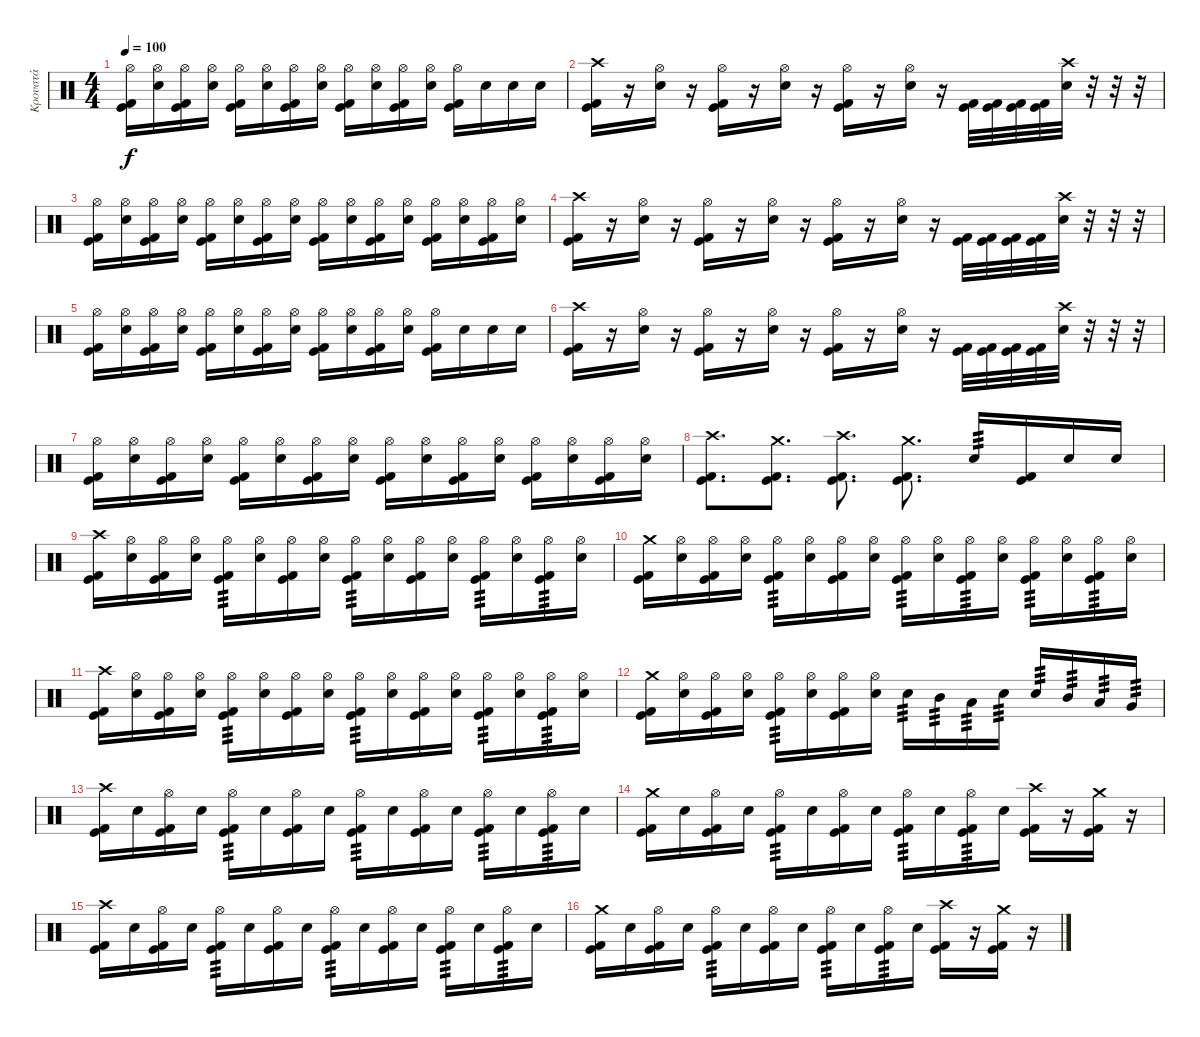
\track ("Κρουστά" "Κρουστά") {instrument percussion}
\staff {score}
\articulation defaults
\ts (4 4)
\tempo 100
\clef neutral
\ks c
("Hi-Hat (open)" "Kick (hit)" "Kick (hit) 2").16{dy f} ("Hi-Hat (open)" "Snare (hit) 2").16 ("Hi-Hat (open)" "Kick (hit)" "Kick (hit) 2").16 ("Hi-Hat (open)" "Snare (hit) 2").16 ("Hi-Hat (open)" "Kick (hit)" "Kick (hit) 2").16 ("Hi-Hat (open)" "Snare (hit) 2").16 ("Hi-Hat (open)" "Kick (hit)" "Kick (hit) 2").16 ("Hi-Hat (open)" "Snare (hit) 2").16 ("Hi-Hat (open)" "Kick (hit)" "Kick (hit) 2").16 ("Hi-Hat (open)" "Snare (hit) 2").16 ("Hi-Hat (open)" "Kick (hit)" "Kick (hit) 2").16 ("Hi-Hat (open)" "Snare (hit) 2").16 ("Hi-Hat (open)" "Kick (hit)" "Kick (hit) 2").16 "Snare (hit) 2".16 "Snare (hit) 2".16 "Snare (hit) 2".16 |
("Crash high (hit)" "Kick (hit)" "Kick (hit) 2").16 r.16 ("Hi-Hat (open)" "Snare (hit) 2").16 r.16 ("Hi-Hat (open)" "Kick (hit)" "Kick (hit) 2").16 r.16 ("Hi-Hat (open)" "Snare (hit) 2").16 r.16 ("Hi-Hat (open)" "Kick (hit)" "Kick (hit) 2").16 r.16 ("Hi-Hat (open)" "Snare (hit) 2").16 r.16 ("Kick (hit)" "Kick (hit) 2").32 ("Kick (hit)" "Kick (hit) 2").32 ("Kick (hit)" "Kick (hit) 2").32 ("Kick (hit)" "Kick (hit) 2").32 ("Crash high (hit)" "Snare (hit) 2").32 r.32 r.32 r.32 |
("Hi-Hat (open)" "Kick (hit)" "Kick (hit) 2").16 ("Hi-Hat (open)" "Snare (hit) 2").16 ("Hi-Hat (open)" "Kick (hit)" "Kick (hit) 2").16 ("Hi-Hat (open)" "Snare (hit) 2").16 ("Hi-Hat (open)" "Kick (hit)" "Kick (hit) 2").16 ("Hi-Hat (open)" "Snare (hit) 2").16 ("Hi-Hat (open)" "Kick (hit)" "Kick (hit) 2").16 ("Hi-Hat (open)" "Snare (hit) 2").16 ("Hi-Hat (open)" "Kick (hit)" "Kick (hit) 2").16 ("Hi-Hat (open)" "Snare (hit) 2").16 ("Hi-Hat (open)" "Kick (hit)" "Kick (hit) 2").16 ("Hi-Hat (open)" "Snare (hit) 2").16 ("Hi-Hat (open)" "Kick (hit)" "Kick (hit) 2").16 ("Hi-Hat (open)" "Snare (hit) 2").16 ("Hi-Hat (open)" "Kick (hit)" "Kick (hit) 2").16 ("Hi-Hat (open)" "Snare (hit) 2").16 |
("Crash high (hit)" "Kick (hit)" "Kick (hit) 2").16 r.16 ("Hi-Hat (open)" "Snare (hit) 2").16 r.16 ("Hi-Hat (open)" "Kick (hit)" "Kick (hit) 2").16 r.16 ("Hi-Hat (open)" "Snare (hit) 2").16 r.16 ("Hi-Hat (open)" "Kick (hit)" "Kick (hit) 2").16 r.16 ("Hi-Hat (open)" "Snare (hit) 2").16 r.16 ("Kick (hit)" "Kick (hit) 2").32 ("Kick (hit)" "Kick (hit) 2").32 ("Kick (hit)" "Kick (hit) 2").32 ("Kick (hit)" "Kick (hit) 2").32 ("Crash high (hit)" "Snare (hit) 2").32 r.32 r.32 r.32 |
("Hi-Hat (open)" "Kick (hit)" "Kick (hit) 2").16 ("Hi-Hat (open)" "Snare (hit) 2").16 ("Hi-Hat (open)" "Kick (hit)" "Kick (hit) 2").16 ("Hi-Hat (open)" "Snare (hit) 2").16 ("Hi-Hat (open)" "Kick (hit)" "Kick (hit) 2").16 ("Hi-Hat (open)" "Snare (hit) 2").16 ("Hi-Hat (open)" "Kick (hit)" "Kick (hit) 2").16 ("Hi-Hat (open)" "Snare (hit) 2").16 ("Hi-Hat (open)" "Kick (hit)" "Kick (hit) 2").16 ("Hi-Hat (open)" "Snare (hit) 2").16 ("Hi-Hat (open)" "Kick (hit)" "Kick (hit) 2").16 ("Hi-Hat (open)" "Snare (hit) 2").16 ("Hi-Hat (open)" "Kick (hit)" "Kick (hit) 2").16 "Snare (hit) 2".16 "Snare (hit) 2".16 "Snare (hit) 2".16 |
("Crash high (hit)" "Kick (hit)" "Kick (hit) 2").16 r.16 ("Hi-Hat (open)" "Snare (hit) 2").16 r.16 ("Hi-Hat (open)" "Kick (hit)" "Kick (hit) 2").16 r.16 ("Hi-Hat (open)" "Snare (hit) 2").16 r.16 ("Hi-Hat (open)" "Kick (hit)" "Kick (hit) 2").16 r.16 ("Hi-Hat (open)" "Snare (hit) 2").16 r.16 ("Kick (hit)" "Kick (hit) 2").32 ("Kick (hit)" "Kick (hit) 2").32 ("Kick (hit)" "Kick (hit) 2").32 ("Kick (hit)" "Kick (hit) 2").32 ("Crash high (hit)" "Snare (hit) 2").32 r.32 r.32 r.32 |
("Hi-Hat (open)" "Kick (hit)" "Kick (hit) 2").16 ("Hi-Hat (open)" "Snare (hit) 2").16 ("Hi-Hat (open)" "Kick (hit)" "Kick (hit) 2").16 ("Hi-Hat (open)" "Snare (hit) 2").16 ("Hi-Hat (open)" "Kick (hit)" "Kick (hit) 2").16 ("Hi-Hat (open)" "Snare (hit) 2").16 ("Hi-Hat (open)" "Kick (hit)" "Kick (hit) 2").16 ("Hi-Hat (open)" "Snare (hit) 2").16 ("Hi-Hat (open)" "Kick (hit)" "Kick (hit) 2").16 ("Hi-Hat (open)" "Snare (hit) 2").16 ("Hi-Hat (open)" "Kick (hit)" "Kick (hit) 2").16 ("Hi-Hat (open)" "Snare (hit) 2").16 ("Hi-Hat (open)" "Kick (hit)" "Kick (hit) 2").16 ("Hi-Hat (open)" "Snare (hit) 2").16 ("Hi-Hat (open)" "Kick (hit)" "Kick (hit) 2").16 ("Hi-Hat (open)" "Snare (hit) 2").16 |
("Crash high (hit)" "Kick (hit)" "Kick (hit) 2").8{d} ("Crash medium (hit)" "Kick (hit)" "Kick (hit) 2").8{d} ("Crash high (hit)" "Kick (hit)" "Kick (hit) 2").8{d} ("Crash medium (hit)" "Kick (hit)" "Kick (hit) 2").8{d} "Snare (hit) 2".16{tp 3} ("Kick (hit)" "Kick (hit) 2").16 "Snare (hit) 2".16 "Snare (hit) 2".16 |
("Crash high (hit)" "Kick (hit)" "Kick (hit) 2").16 ("Hi-Hat (open)" "Snare (hit) 2").16 ("Hi-Hat (open)" "Kick (hit)" "Kick (hit) 2").16 ("Hi-Hat (open)" "Snare (hit) 2").16 ("Hi-Hat (open)" "Kick (hit)" "Kick (hit) 2").16{tp 3} ("Hi-Hat (open)" "Snare (hit) 2").16 ("Hi-Hat (open)" "Kick (hit)" "Kick (hit) 2").16 ("Hi-Hat (open)" "Snare (hit) 2").16 ("Hi-Hat (open)" "Kick (hit)" "Kick (hit) 2").16{tp 3} ("Hi-Hat (open)" "Snare (hit) 2").16 ("Hi-Hat (open)" "Kick (hit)" "Kick (hit) 2").16 ("Hi-Hat (open)" "Snare (hit) 2").16 ("Hi-Hat (open)" "Kick (hit)" "Kick (hit) 2").16{tp 3} ("Hi-Hat (open)" "Snare (hit) 2").16 ("Hi-Hat (open)" "Kick (hit)" "Kick (hit) 2").16{tp 3} ("Hi-Hat (open)" "Snare (hit) 2").16 |
("Crash medium (hit)" "Kick (hit)" "Kick (hit) 2").16 ("Hi-Hat (open)" "Snare (hit) 2").16 ("Hi-Hat (open)" "Kick (hit)" "Kick (hit) 2").16 ("Hi-Hat (open)" "Snare (hit) 2").16 ("Hi-Hat (open)" "Kick (hit)" "Kick (hit) 2").16{tp 3} ("Hi-Hat (open)" "Snare (hit) 2").16 ("Hi-Hat (open)" "Kick (hit)" "Kick (hit) 2").16 ("Hi-Hat (open)" "Snare (hit) 2").16 ("Hi-Hat (open)" "Kick (hit)" "Kick (hit) 2").16{tp 3} ("Hi-Hat (open)" "Snare (hit) 2").16 ("Hi-Hat (open)" "Kick (hit)" "Kick (hit) 2").16{tp 3} ("Hi-Hat (open)" "Snare (hit) 2").16 ("Hi-Hat (open)" "Kick (hit)" "Kick (hit) 2").16{tp 3} ("Hi-Hat (open)" "Snare (hit) 2").16 ("Hi-Hat (open)" "Kick (hit)" "Kick (hit) 2").16{tp 3} ("Hi-Hat (open)" "Snare (hit) 2").16 |
("Crash high (hit)" "Kick (hit)" "Kick (hit) 2").16 ("Hi-Hat (open)" "Snare (hit) 2").16 ("Hi-Hat (open)" "Kick (hit)" "Kick (hit) 2").16 ("Hi-Hat (open)" "Snare (hit) 2").16 ("Hi-Hat (open)" "Kick (hit)" "Kick (hit) 2").16{tp 3} ("Hi-Hat (open)" "Snare (hit) 2").16 ("Hi-Hat (open)" "Kick (hit)" "Kick (hit) 2").16 ("Hi-Hat (open)" "Snare (hit) 2").16 ("Hi-Hat (open)" "Kick (hit)" "Kick (hit) 2").16{tp 3} ("Hi-Hat (open)" "Snare (hit) 2").16 ("Hi-Hat (open)" "Kick (hit)" "Kick (hit) 2").16 ("Hi-Hat (open)" "Snare (hit) 2").16 ("Hi-Hat (open)" "Kick (hit)" "Kick (hit) 2").16{tp 3} ("Hi-Hat (open)" "Snare (hit) 2").16 ("Hi-Hat (open)" "Kick (hit)" "Kick (hit) 2").16{tp 3} ("Hi-Hat (open)" "Snare (hit) 2").16 |
("Crash medium (hit)" "Kick (hit)" "Kick (hit) 2").16 ("Hi-Hat (open)" "Snare (hit) 2").16 ("Hi-Hat (open)" "Kick (hit)" "Kick (hit) 2").16 ("Hi-Hat (open)" "Snare (hit) 2").16 ("Hi-Hat (open)" "Kick (hit)" "Kick (hit) 2").16{tp 3} ("Hi-Hat (open)" "Snare (hit) 2").16 ("Hi-Hat (open)" "Kick (hit)" "Kick (hit) 2").16 ("Hi-Hat (open)" "Snare (hit) 2").16 "Snare (hit) 2".16{tp 3} "Mid Tom (hit)".16{tp 3} "Low Tom (hit)".16{tp 3} "Snare (hit) 2".16{tp 3} "Snare (hit) 2".16{tp 3} "Mid Tom (hit)".16{tp 3} "Low Tom (hit)".16{tp 3} "Very Low Tom (hit)".16{tp 3} |
("Crash high (hit)" "Kick (hit)" "Kick (hit) 2").16 "Snare (hit) 2".16 ("Hi-Hat (open)" "Kick (hit)" "Kick (hit) 2").16 "Snare (hit) 2".16 ("Hi-Hat (open)" "Kick (hit)" "Kick (hit) 2").16{tp 3} "Snare (hit) 2".16 ("Hi-Hat (open)" "Kick (hit)" "Kick (hit) 2").16 "Snare (hit) 2".16 ("Hi-Hat (open)" "Kick (hit)" "Kick (hit) 2").16{tp 3} "Snare (hit) 2".16 ("Hi-Hat (open)" "Kick (hit)" "Kick (hit) 2").16 "Snare (hit) 2".16 ("Hi-Hat (open)" "Kick (hit)" "Kick (hit) 2").16{tp 3} "Snare (hit) 2".16 ("Hi-Hat (open)" "Kick (hit)" "Kick (hit) 2").16{tp 3} "Snare (hit) 2".16 |
("Crash medium (hit)" "Kick (hit)" "Kick (hit) 2").16 "Snare (hit) 2".16 ("Hi-Hat (open)" "Kick (hit)" "Kick (hit) 2").16 "Snare (hit) 2".16 ("Hi-Hat (open)" "Kick (hit)" "Kick (hit) 2").16{tp 3} "Snare (hit) 2".16 ("Hi-Hat (open)" "Kick (hit)" "Kick (hit) 2").16 "Snare (hit) 2".16 ("Hi-Hat (open)" "Kick (hit)" "Kick (hit) 2").16{tp 3} "Snare (hit) 2".16 ("Hi-Hat (open)" "Kick (hit)" "Kick (hit) 2").16{tp 3} "Snare (hit) 2".16 ("Crash high (hit)" "Kick (hit)" "Kick (hit) 2").16 r.16 ("Crash medium (hit)" "Kick (hit)" "Kick (hit) 2").16 r.16 |
("Crash high (hit)" "Kick (hit)" "Kick (hit) 2").16 "Snare (hit) 2".16 ("Hi-Hat (open)" "Kick (hit)" "Kick (hit) 2").16 "Snare (hit) 2".16 ("Hi-Hat (open)" "Kick (hit)" "Kick (hit) 2").16{tp 3} "Snare (hit) 2".16 ("Hi-Hat (open)" "Kick (hit)" "Kick (hit) 2").16 "Snare (hit) 2".16 ("Hi-Hat (open)" "Kick (hit)" "Kick (hit) 2").16{tp 3} "Snare (hit) 2".16 ("Hi-Hat (open)" "Kick (hit)" "Kick (hit) 2").16 "Snare (hit) 2".16 ("Hi-Hat (open)" "Kick (hit)" "Kick (hit) 2").16{tp 3} "Snare (hit) 2".16 ("Hi-Hat (open)" "Kick (hit)" "Kick (hit) 2").16{tp 3} "Snare (hit) 2".16 |
("Crash medium (hit)" "Kick (hit)" "Kick (hit) 2").16 "Snare (hit) 2".16 ("Hi-Hat (open)" "Kick (hit)" "Kick (hit) 2").16 "Snare (hit) 2".16 ("Hi-Hat (open)" "Kick (hit)" "Kick (hit) 2").16{tp 3} "Snare (hit) 2".16 ("Hi-Hat (open)" "Kick (hit)" "Kick (hit) 2").16 "Snare (hit) 2".16 ("Hi-Hat (open)" "Kick (hit)" "Kick (hit) 2").16{tp 3} "Snare (hit) 2".16 ("Hi-Hat (open)" "Kick (hit)" "Kick (hit) 2").16{tp 3} "Snare (hit) 2".16 ("Crash high (hit)" "Kick (hit)" "Kick (hit) 2").16 r.16 ("Crash medium (hit)" "Kick (hit)" "Kick (hit) 2").16 r.16
